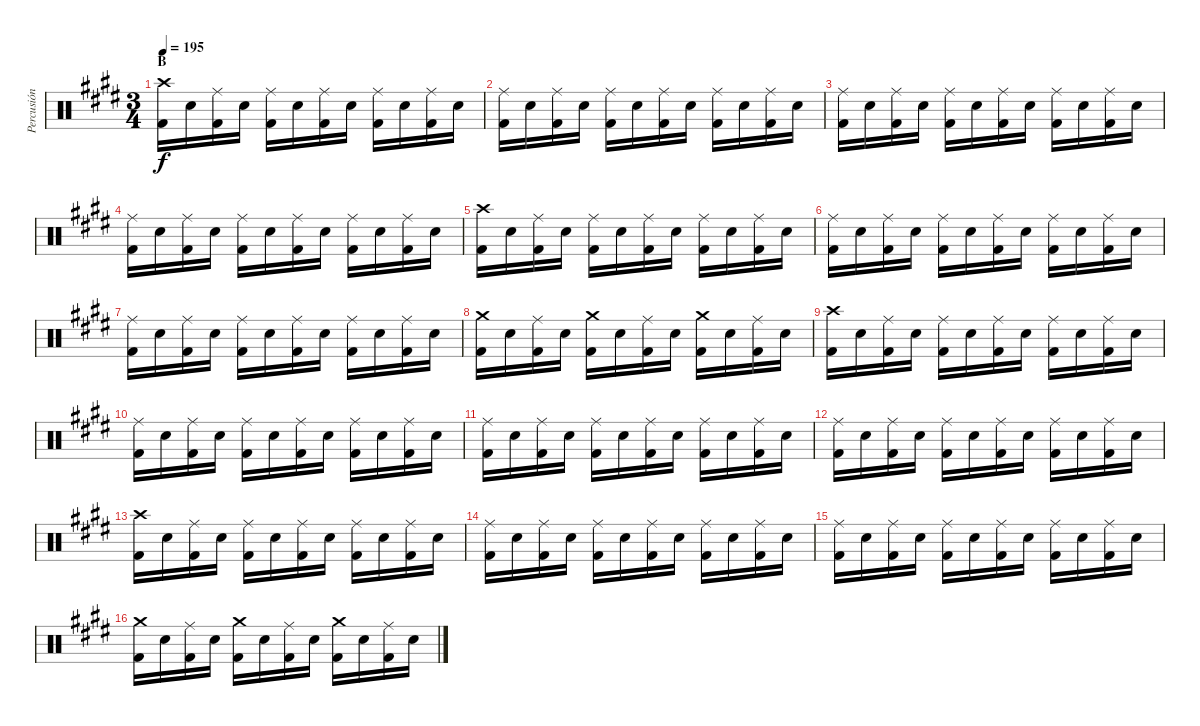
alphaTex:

\track ("Percusión" "Percusión") {instrument percussion}
\staff {score}
\articulation defaults
\ts (3 4)
\section ("" "B")
\tempo 195
\clef neutral
\ks e
("Crash high (hit)" "Kick (hit) 2").16{dy f} "Electric Snare (hit)".16 ("Ride (middle)" "Kick (hit) 2").16 "Electric Snare (hit)".16 ("Ride (middle)" "Kick (hit) 2").16 "Electric Snare (hit)".16 ("Ride (middle)" "Kick (hit) 2").16 "Electric Snare (hit)".16 ("Ride (middle)" "Kick (hit) 2").16 "Electric Snare (hit)".16 ("Ride (middle)" "Kick (hit) 2").16 "Electric Snare (hit)".16 |
("Ride (middle)" "Kick (hit) 2").16 "Electric Snare (hit)".16 ("Ride (middle)" "Kick (hit) 2").16 "Electric Snare (hit)".16 ("Ride (middle)" "Kick (hit) 2").16 "Electric Snare (hit)".16 ("Ride (middle)" "Kick (hit) 2").16 "Electric Snare (hit)".16 ("Ride (middle)" "Kick (hit) 2").16 "Electric Snare (hit)".16 ("Ride (middle)" "Kick (hit) 2").16 "Electric Snare (hit)".16 |
("Ride (middle)" "Kick (hit) 2").16 "Electric Snare (hit)".16 ("Ride (middle)" "Kick (hit) 2").16 "Electric Snare (hit)".16 ("Ride (middle)" "Kick (hit) 2").16 "Electric Snare (hit)".16 ("Ride (middle)" "Kick (hit) 2").16 "Electric Snare (hit)".16 ("Ride (middle)" "Kick (hit) 2").16 "Electric Snare (hit)".16 ("Ride (middle)" "Kick (hit) 2").16 "Electric Snare (hit)".16 |
("Ride (middle)" "Kick (hit) 2").16 "Electric Snare (hit)".16 ("Ride (middle)" "Kick (hit) 2").16 "Electric Snare (hit)".16 ("Ride (middle)" "Kick (hit) 2").16 "Electric Snare (hit)".16 ("Ride (middle)" "Kick (hit) 2").16 "Electric Snare (hit)".16 ("Ride (middle)" "Kick (hit) 2").16 "Electric Snare (hit)".16 ("Ride (middle)" "Kick (hit) 2").16 "Electric Snare (hit)".16 |
("Crash high (hit)" "Kick (hit) 2").16 "Electric Snare (hit)".16 ("Ride (middle)" "Kick (hit) 2").16 "Electric Snare (hit)".16 ("Ride (middle)" "Kick (hit) 2").16 "Electric Snare (hit)".16 ("Ride (middle)" "Kick (hit) 2").16 "Electric Snare (hit)".16 ("Ride (middle)" "Kick (hit) 2").16 "Electric Snare (hit)".16 ("Ride (middle)" "Kick (hit) 2").16 "Electric Snare (hit)".16 |
("Ride (middle)" "Kick (hit) 2").16 "Electric Snare (hit)".16 ("Ride (middle)" "Kick (hit) 2").16 "Electric Snare (hit)".16 ("Ride (middle)" "Kick (hit) 2").16 "Electric Snare (hit)".16 ("Ride (middle)" "Kick (hit) 2").16 "Electric Snare (hit)".16 ("Ride (middle)" "Kick (hit) 2").16 "Electric Snare (hit)".16 ("Ride (middle)" "Kick (hit) 2").16 "Electric Snare (hit)".16 |
("Ride (middle)" "Kick (hit) 2").16 "Electric Snare (hit)".16 ("Ride (middle)" "Kick (hit) 2").16 "Electric Snare (hit)".16 ("Ride (middle)" "Kick (hit) 2").16 "Electric Snare (hit)".16 ("Ride (middle)" "Kick (hit) 2").16 "Electric Snare (hit)".16 ("Ride (middle)" "Kick (hit) 2").16 "Electric Snare (hit)".16 ("Ride (middle)" "Kick (hit) 2").16 "Electric Snare (hit)".16 |
("Crash medium (hit)" "Kick (hit) 2").16 "Electric Snare (hit)".16 ("Ride (middle)" "Kick (hit) 2").16 "Electric Snare (hit)".16 ("Crash medium (hit)" "Kick (hit) 2").16 "Electric Snare (hit)".16 ("Ride (middle)" "Kick (hit) 2").16 "Electric Snare (hit)".16 ("Crash medium (hit)" "Kick (hit) 2").16 "Electric Snare (hit)".16 ("Ride (middle)" "Kick (hit) 2").16 "Electric Snare (hit)".16 |
("Crash high (hit)" "Kick (hit) 2").16 "Electric Snare (hit)".16 ("Ride (middle)" "Kick (hit) 2").16 "Electric Snare (hit)".16 ("Ride (middle)" "Kick (hit) 2").16 "Electric Snare (hit)".16 ("Ride (middle)" "Kick (hit) 2").16 "Electric Snare (hit)".16 ("Ride (middle)" "Kick (hit) 2").16 "Electric Snare (hit)".16 ("Ride (middle)" "Kick (hit) 2").16 "Electric Snare (hit)".16 |
("Ride (middle)" "Kick (hit) 2").16 "Electric Snare (hit)".16 ("Ride (middle)" "Kick (hit) 2").16 "Electric Snare (hit)".16 ("Ride (middle)" "Kick (hit) 2").16 "Electric Snare (hit)".16 ("Ride (middle)" "Kick (hit) 2").16 "Electric Snare (hit)".16 ("Ride (middle)" "Kick (hit) 2").16 "Electric Snare (hit)".16 ("Ride (middle)" "Kick (hit) 2").16 "Electric Snare (hit)".16 |
("Ride (middle)" "Kick (hit) 2").16 "Electric Snare (hit)".16 ("Ride (middle)" "Kick (hit) 2").16 "Electric Snare (hit)".16 ("Ride (middle)" "Kick (hit) 2").16 "Electric Snare (hit)".16 ("Ride (middle)" "Kick (hit) 2").16 "Electric Snare (hit)".16 ("Ride (middle)" "Kick (hit) 2").16 "Electric Snare (hit)".16 ("Ride (middle)" "Kick (hit) 2").16 "Electric Snare (hit)".16 |
("Ride (middle)" "Kick (hit) 2").16 "Electric Snare (hit)".16 ("Ride (middle)" "Kick (hit) 2").16 "Electric Snare (hit)".16 ("Ride (middle)" "Kick (hit) 2").16 "Electric Snare (hit)".16 ("Ride (middle)" "Kick (hit) 2").16 "Electric Snare (hit)".16 ("Ride (middle)" "Kick (hit) 2").16 "Electric Snare (hit)".16 ("Ride (middle)" "Kick (hit) 2").16 "Electric Snare (hit)".16 |
("Crash high (hit)" "Kick (hit) 2").16 "Electric Snare (hit)".16 ("Ride (middle)" "Kick (hit) 2").16 "Electric Snare (hit)".16 ("Ride (middle)" "Kick (hit) 2").16 "Electric Snare (hit)".16 ("Ride (middle)" "Kick (hit) 2").16 "Electric Snare (hit)".16 ("Ride (middle)" "Kick (hit) 2").16 "Electric Snare (hit)".16 ("Ride (middle)" "Kick (hit) 2").16 "Electric Snare (hit)".16 |
("Ride (middle)" "Kick (hit) 2").16 "Electric Snare (hit)".16 ("Ride (middle)" "Kick (hit) 2").16 "Electric Snare (hit)".16 ("Ride (middle)" "Kick (hit) 2").16 "Electric Snare (hit)".16 ("Ride (middle)" "Kick (hit) 2").16 "Electric Snare (hit)".16 ("Ride (middle)" "Kick (hit) 2").16 "Electric Snare (hit)".16 ("Ride (middle)" "Kick (hit) 2").16 "Electric Snare (hit)".16 |
("Ride (middle)" "Kick (hit) 2").16 "Electric Snare (hit)".16 ("Ride (middle)" "Kick (hit) 2").16 "Electric Snare (hit)".16 ("Ride (middle)" "Kick (hit) 2").16 "Electric Snare (hit)".16 ("Ride (middle)" "Kick (hit) 2").16 "Electric Snare (hit)".16 ("Ride (middle)" "Kick (hit) 2").16 "Electric Snare (hit)".16 ("Ride (middle)" "Kick (hit) 2").16 "Electric Snare (hit)".16 |
("Crash medium (hit)" "Kick (hit) 2").16 "Electric Snare (hit)".16 ("Ride (middle)" "Kick (hit) 2").16 "Electric Snare (hit)".16 ("Crash medium (hit)" "Kick (hit) 2").16 "Electric Snare (hit)".16 ("Ride (middle)" "Kick (hit) 2").16 "Electric Snare (hit)".16 ("Crash medium (hit)" "Kick (hit) 2").16 "Electric Snare (hit)".16 ("Ride (middle)" "Kick (hit) 2").16 "Electric Snare (hit)".16
